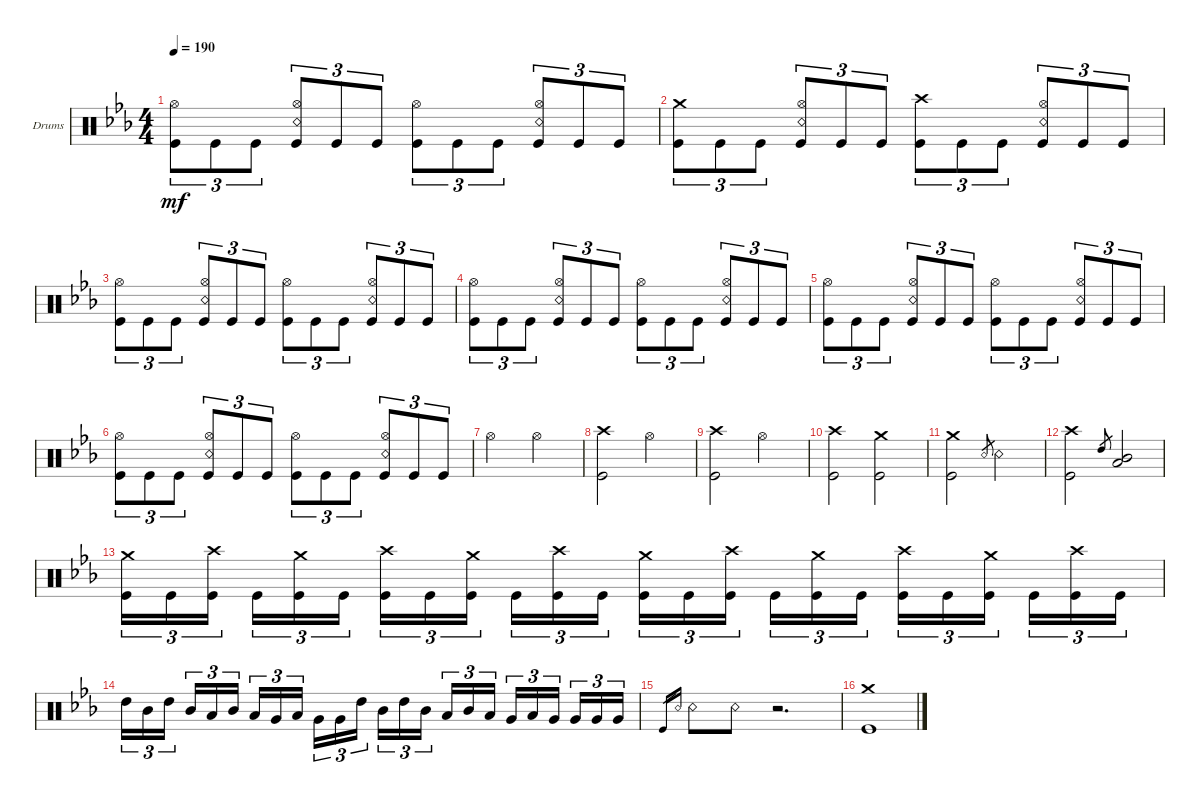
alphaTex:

\defaultSystemsLayout 4
\bracketExtendMode groupsimilarinstruments
\firstSystemTrackNameOrientation horizontal
\otherSystemsTrackNameOrientation horizontal
\track ("Drumkit" "Drums") {instrument percussion}
\staff {score}
\articulation defaults
\ts (4 4)
\tempo 190
\clef neutral
\ks cminor
("Kick (hit)" "Hi-Hat (open)").8{tu (3 2) dy mf} "Kick (hit)".8{tu (3 2)} "Kick (hit)".8{tu (3 2)} ("Snare (rim shot)" "Hi-Hat (open)" "Kick (hit)").8{tu (3 2)} "Kick (hit)".8{tu (3 2)} "Kick (hit)".8{tu (3 2)} ("Kick (hit)" "Hi-Hat (open)").8{tu (3 2)} "Kick (hit)".8{tu (3 2)} "Kick (hit)".8{tu (3 2)} ("Snare (rim shot)" "Hi-Hat (open)" "Kick (hit)").8{tu (3 2)} "Kick (hit)".8{tu (3 2)} "Kick (hit)".8{tu (3 2)} |
("Kick (hit)" "Crash medium (hit)").8{tu (3 2)} "Kick (hit)".8{tu (3 2)} "Kick (hit)".8{tu (3 2)} ("Snare (rim shot)" "Hi-Hat (open)" "Kick (hit)").8{tu (3 2)} "Kick (hit)".8{tu (3 2)} "Kick (hit)".8{tu (3 2)} ("Kick (hit)" "Crash high (hit)").8{tu (3 2)} "Kick (hit)".8{tu (3 2)} "Kick (hit)".8{tu (3 2)} ("Snare (rim shot)" "Hi-Hat (open)" "Kick (hit)").8{tu (3 2)} "Kick (hit)".8{tu (3 2)} "Kick (hit)".8{tu (3 2)} |
("Kick (hit)" "Hi-Hat (open)").8{tu (3 2)} "Kick (hit)".8{tu (3 2)} "Kick (hit)".8{tu (3 2)} ("Snare (rim shot)" "Hi-Hat (open)" "Kick (hit)").8{tu (3 2)} "Kick (hit)".8{tu (3 2)} "Kick (hit)".8{tu (3 2)} ("Kick (hit)" "Hi-Hat (open)").8{tu (3 2)} "Kick (hit)".8{tu (3 2)} "Kick (hit)".8{tu (3 2)} ("Snare (rim shot)" "Hi-Hat (open)" "Kick (hit)").8{tu (3 2)} "Kick (hit)".8{tu (3 2)} "Kick (hit)".8{tu (3 2)} |
("Kick (hit)" "Hi-Hat (open)").8{tu (3 2)} "Kick (hit)".8{tu (3 2)} "Kick (hit)".8{tu (3 2)} ("Snare (rim shot)" "Hi-Hat (open)" "Kick (hit)").8{tu (3 2)} "Kick (hit)".8{tu (3 2)} "Kick (hit)".8{tu (3 2)} ("Kick (hit)" "Hi-Hat (open)").8{tu (3 2)} "Kick (hit)".8{tu (3 2)} "Kick (hit)".8{tu (3 2)} ("Snare (rim shot)" "Hi-Hat (open)" "Kick (hit)").8{tu (3 2)} "Kick (hit)".8{tu (3 2)} "Kick (hit)".8{tu (3 2)} |
("Kick (hit)" "Hi-Hat (open)").8{tu (3 2)} "Kick (hit)".8{tu (3 2)} "Kick (hit)".8{tu (3 2)} ("Snare (rim shot)" "Hi-Hat (open)" "Kick (hit)").8{tu (3 2)} "Kick (hit)".8{tu (3 2)} "Kick (hit)".8{tu (3 2)} ("Kick (hit)" "Hi-Hat (open)").8{tu (3 2)} "Kick (hit)".8{tu (3 2)} "Kick (hit)".8{tu (3 2)} ("Snare (rim shot)" "Hi-Hat (open)" "Kick (hit)").8{tu (3 2)} "Kick (hit)".8{tu (3 2)} "Kick (hit)".8{tu (3 2)} |
("Kick (hit)" "Hi-Hat (open)").8{tu (3 2)} "Kick (hit)".8{tu (3 2)} "Kick (hit)".8{tu (3 2)} ("Snare (rim shot)" "Hi-Hat (open)" "Kick (hit)").8{tu (3 2)} "Kick (hit)".8{tu (3 2)} "Kick (hit)".8{tu (3 2)} ("Kick (hit)" "Hi-Hat (open)").8{tu (3 2)} "Kick (hit)".8{tu (3 2)} "Kick (hit)".8{tu (3 2)} ("Snare (rim shot)" "Hi-Hat (open)" "Kick (hit)").8{tu (3 2)} "Kick (hit)".8{tu (3 2)} "Kick (hit)".8{tu (3 2)} |
"Hi-Hat (open)".2 "Hi-Hat (open)".2 |
("Kick (hit)" "Crash high (hit)").2 "Hi-Hat (open)".2 |
("Kick (hit)" "Crash high (hit)").2 "Hi-Hat (open)".2 |
("Kick (hit)" "Crash high (hit)").2 ("Kick (hit)" "Crash medium (hit)").2 |
("Kick (hit)" "Crash medium (hit)").2 "Snare (rim shot)".8{gr} "Snare (rim shot)".2 |
("Kick (hit)" "Crash high (hit)").2 "High Tom (hit)".8{gr} ("Low Tom (hit)" "Mid Tom (hit)").2 |
("Kick (hit)" "Crash medium (hit)").16{tu (3 2)} "Kick (hit)".16{tu (3 2)} ("Kick (hit)" "Crash high (hit)").16{tu (3 2)} "Kick (hit)".16{tu (3 2)} ("Kick (hit)" "Crash medium (hit)").16{tu (3 2)} "Kick (hit)".16{tu (3 2)} ("Kick (hit)" "Crash high (hit)").16{tu (3 2)} "Kick (hit)".16{tu (3 2)} ("Kick (hit)" "Crash medium (hit)").16{tu (3 2)} "Kick (hit)".16{tu (3 2)} ("Kick (hit)" "Crash high (hit)").16{tu (3 2)} "Kick (hit)".16{tu (3 2)} ("Kick (hit)" "Crash medium (hit)").16{tu (3 2)} "Kick (hit)".16{tu (3 2)} ("Kick (hit)" "Crash high (hit)").16{tu (3 2)} "Kick (hit)".16{tu (3 2)} ("Kick (hit)" "Crash medium (hit)").16{tu (3 2)} "Kick (hit)".16{tu (3 2)} ("Kick (hit)" "Crash high (hit)").16{tu (3 2)} "Kick (hit)".16{tu (3 2)} ("Kick (hit)" "Crash medium (hit)").16{tu (3 2)} "Kick (hit)".16{tu (3 2)} ("Kick (hit)" "Crash high (hit)").16{tu (3 2)} "Kick (hit)".16{tu (3 2)} |
"High Tom (hit)".16{tu (3 2)} "Mid Tom (hit)".16{tu (3 2)} "High Tom (hit)".16{tu (3 2)} "Mid Tom (hit)".16{tu (3 2)} "Low Tom (hit)".16{tu (3 2)} "Mid Tom (hit)".16{tu (3 2)} "Low Tom (hit)".16{tu (3 2)} "Very Low Tom (hit)".16{tu (3 2)} "Low Tom (hit)".16{tu (3 2)} "Very Low Tom (hit)".16{tu (3 2)} "Very Low Tom (hit)".16{tu (3 2)} "High Tom (hit)".16{tu (3 2)} "Mid Tom (hit)".16{tu (3 2)} "High Tom (hit)".16{tu (3 2)} "Mid Tom (hit)".16{tu (3 2)} "Low Tom (hit)".16{tu (3 2)} "Mid Tom (hit)".16{tu (3 2)} "Low Tom (hit)".16{tu (3 2)} "Very Low Tom (hit)".16{tu (3 2)} "Low Tom (hit)".16{tu (3 2)} "Very Low Tom (hit)".16{tu (3 2)} "Very Low Tom (hit)".16{tu (3 2)} "Very Low Tom (hit)".16{tu (3 2)} "Very Low Tom (hit)".16{tu (3 2)} |
"Kick (hit)".16{tu (3 2) gr} "Snare (rim shot)".16{tu (3 2) gr} "Snare (rim shot)".8 "Snare (rim shot)".8 r.2{d} |
("Kick (hit)" "Crash medium (hit)").1
